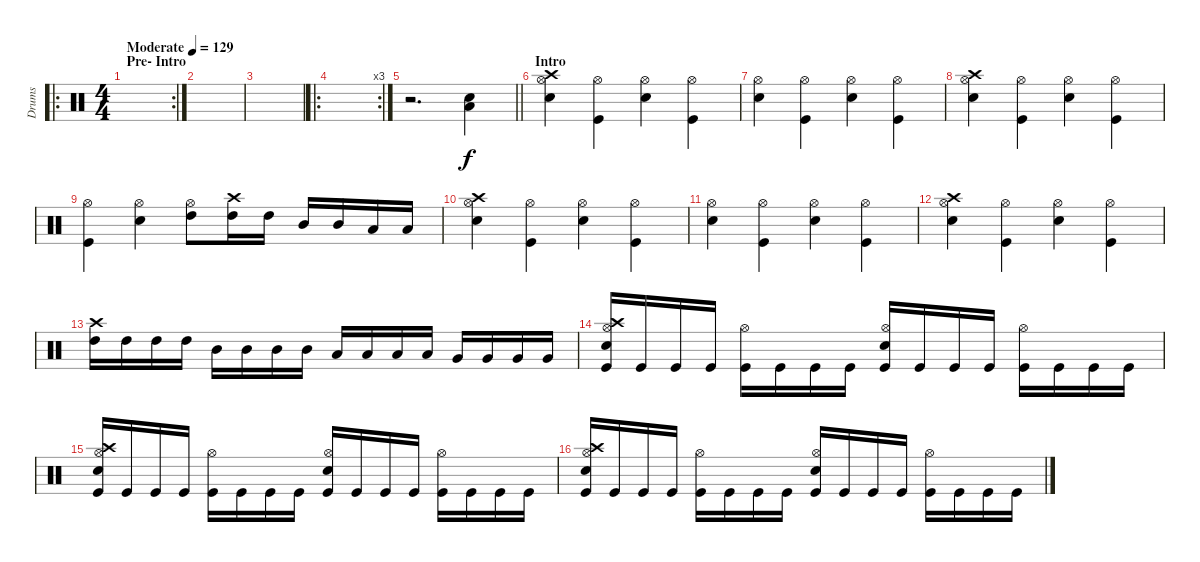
\track ("Drums" "Drums") {instrument percussion}
\staff {score}
\articulation defaults
\ro
\rc 2
\ts (4 4)
\section ("" "Pre- Intro")
\tempo (129 "Moderate")
\clef neutral
\ks c
|
|
|
\ro
\rc 3
|
\barLineRight lightlight
r.2{d} ("Low Tom (hit)" "Snare (hit) 2").4 |
\section ("" "Intro")
("Crash high (hit)" "Snare (hit) 2" "Hi-Hat (open)").4 ("Kick (hit)" "Hi-Hat (open)").4 ("Snare (hit) 2" "Hi-Hat (open)").4 ("Kick (hit)" "Hi-Hat (open)").4 |
("Snare (hit) 2" "Hi-Hat (open)").4 ("Kick (hit)" "Hi-Hat (open)").4 ("Snare (hit) 2" "Hi-Hat (open)").4 ("Kick (hit)" "Hi-Hat (open)").4 |
("Crash high (hit)" "Snare (hit) 2" "Hi-Hat (open)").4 ("Kick (hit)" "Hi-Hat (open)").4 ("Snare (hit) 2" "Hi-Hat (open)").4 ("Kick (hit)" "Hi-Hat (open)").4 |
("Kick (hit)" "Hi-Hat (open)").4 ("Snare (hit) 2" "Hi-Hat (open)").4 ("High Tom (hit)" "Hi-Hat (open)").8 ("Crash high (hit)" "High Tom (hit)").16 "High Tom (hit)".16 "Mid Tom (hit)".16 "Mid Tom (hit)".16 "Low Tom (hit)".16 "Low Tom (hit)".16 |
("Crash high (hit)" "Snare (hit) 2" "Hi-Hat (open)").4 ("Kick (hit)" "Hi-Hat (open)").4 ("Snare (hit) 2" "Hi-Hat (open)").4 ("Kick (hit)" "Hi-Hat (open)").4 |
("Snare (hit) 2" "Hi-Hat (open)").4 ("Kick (hit)" "Hi-Hat (open)").4 ("Snare (hit) 2" "Hi-Hat (open)").4 ("Kick (hit)" "Hi-Hat (open)").4 |
("Crash high (hit)" "Snare (hit) 2" "Hi-Hat (open)").4 ("Kick (hit)" "Hi-Hat (open)").4 ("Snare (hit) 2" "Hi-Hat (open)").4 ("Kick (hit)" "Hi-Hat (open)").4 |
("Crash high (hit)" "High Tom (hit)").16 "High Tom (hit)".16 "High Tom (hit)".16 "High Tom (hit)".16 "Mid Tom (hit)".16 "Mid Tom (hit)".16 "Mid Tom (hit)".16 "Mid Tom (hit)".16 "Low Tom (hit)".16 "Low Tom (hit)".16 "Low Tom (hit)".16 "Low Tom (hit)".16 "Very Low Tom (hit)".16 "Very Low Tom (hit)".16 "Very Low Tom (hit)".16 "Very Low Tom (hit)".16 |
("Crash high (hit)" "Snare (hit) 2" "Hi-Hat (open)" "Kick (hit)").16 "Kick (hit)".16 "Kick (hit)".16 "Kick (hit)".16 ("Hi-Hat (open)" "Kick (hit)").16 "Kick (hit)".16 "Kick (hit)".16 "Kick (hit)".16 ("Snare (hit) 2" "Hi-Hat (open)" "Kick (hit)").16 "Kick (hit)".16 "Kick (hit)".16 "Kick (hit)".16 ("Hi-Hat (open)" "Kick (hit)").16 "Kick (hit)".16 "Kick (hit)".16 "Kick (hit)".16 |
("Crash high (hit)" "Snare (hit) 2" "Hi-Hat (open)" "Kick (hit)").16 "Kick (hit)".16 "Kick (hit)".16 "Kick (hit)".16 ("Hi-Hat (open)" "Kick (hit)").16 "Kick (hit)".16 "Kick (hit)".16 "Kick (hit)".16 ("Snare (hit) 2" "Hi-Hat (open)" "Kick (hit)").16 "Kick (hit)".16 "Kick (hit)".16 "Kick (hit)".16 ("Hi-Hat (open)" "Kick (hit)").16 "Kick (hit)".16 "Kick (hit)".16 "Kick (hit)".16 |
("Crash high (hit)" "Snare (hit) 2" "Hi-Hat (open)" "Kick (hit)").16 "Kick (hit)".16 "Kick (hit)".16 "Kick (hit)".16 ("Hi-Hat (open)" "Kick (hit)").16 "Kick (hit)".16 "Kick (hit)".16 "Kick (hit)".16 ("Snare (hit) 2" "Hi-Hat (open)" "Kick (hit)").16 "Kick (hit)".16 "Kick (hit)".16 "Kick (hit)".16 ("Hi-Hat (open)" "Kick (hit)").16 "Kick (hit)".16 "Kick (hit)".16 "Kick (hit)".16
